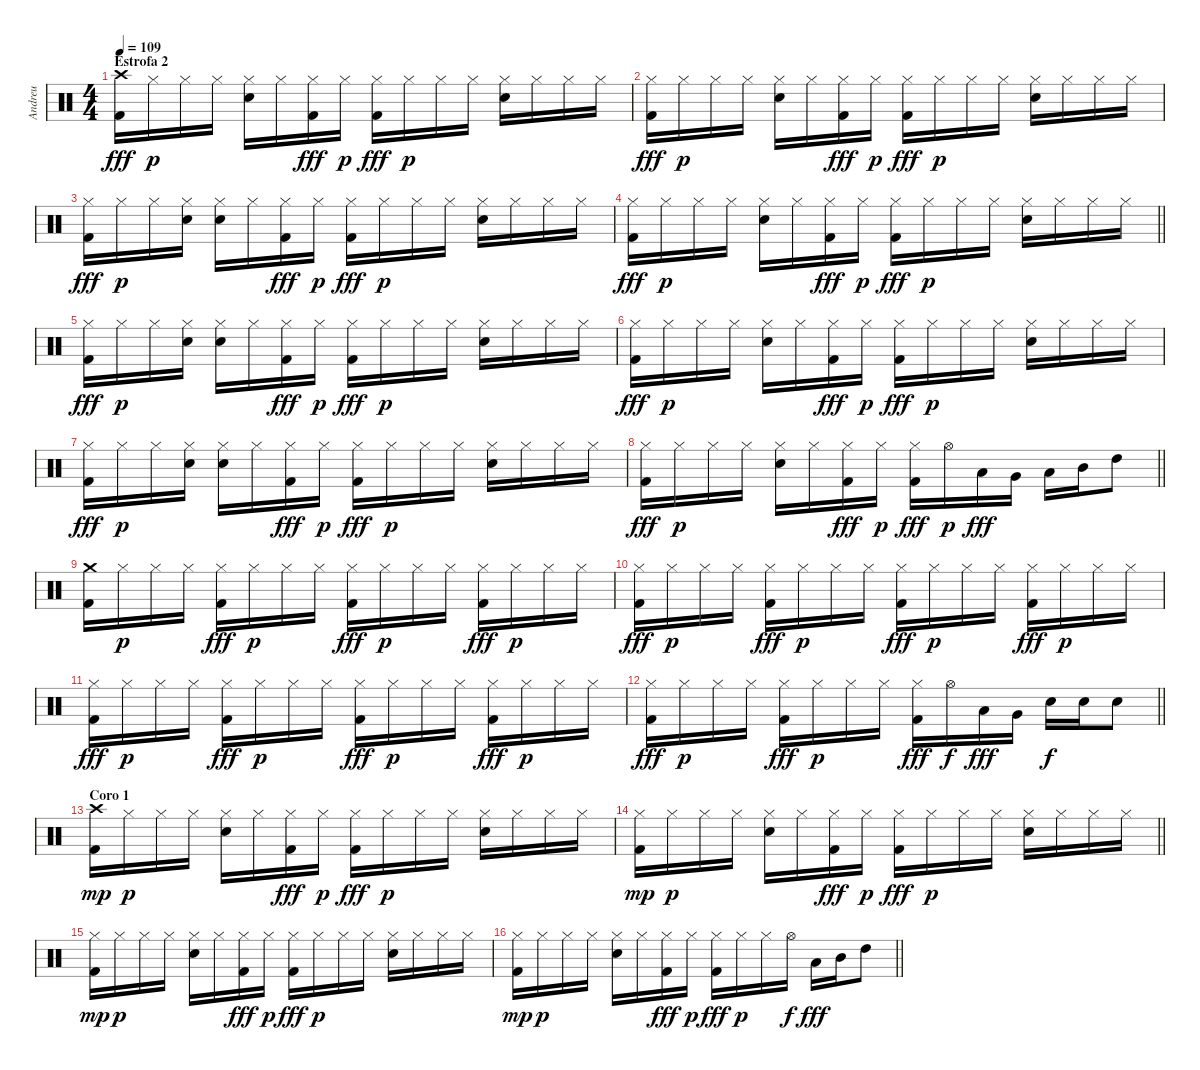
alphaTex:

\track ("Andreu" "Andreu") {instrument percussion}
\staff {score}
\articulation defaults
\ts (4 4)
\section ("" "Estrofa 2")
\tempo 109
\clef neutral
\ks c
("Crash high (hit)" "Kick (hit) 2").16{dy fff} "Hi-Hat (closed)".16{dy p} "Hi-Hat (closed)".16 "Hi-Hat (closed)".16 ("Hi-Hat (closed)" "Snare (hit) 2").16 "Hi-Hat (closed)".16 ("Hi-Hat (closed)" "Kick (hit) 2").16{dy fff} "Hi-Hat (closed)".16{dy p} ("Hi-Hat (closed)" "Kick (hit) 2").16{dy fff} "Hi-Hat (closed)".16{dy p} "Hi-Hat (closed)".16 "Hi-Hat (closed)".16 ("Hi-Hat (closed)" "Snare (hit) 2").16 "Hi-Hat (closed)".16 "Hi-Hat (closed)".16 "Hi-Hat (closed)".16 |
("Hi-Hat (closed)" "Kick (hit) 2").16{dy fff} "Hi-Hat (closed)".16{dy p} "Hi-Hat (closed)".16 "Hi-Hat (closed)".16 ("Hi-Hat (closed)" "Snare (hit) 2").16 "Hi-Hat (closed)".16 ("Hi-Hat (closed)" "Kick (hit) 2").16{dy fff} "Hi-Hat (closed)".16{dy p} ("Hi-Hat (closed)" "Kick (hit) 2").16{dy fff} "Hi-Hat (closed)".16{dy p} "Hi-Hat (closed)".16 "Hi-Hat (closed)".16 ("Hi-Hat (closed)" "Snare (hit) 2").16 "Hi-Hat (closed)".16 "Hi-Hat (closed)".16 "Hi-Hat (closed)".16 |
("Hi-Hat (closed)" "Kick (hit) 2").16{dy fff} "Hi-Hat (closed)".16{dy p} "Hi-Hat (closed)".16 ("Hi-Hat (closed)" "Snare (hit) 2").16 ("Hi-Hat (closed)" "Snare (hit) 2").16 "Hi-Hat (closed)".16 ("Hi-Hat (closed)" "Kick (hit) 2").16{dy fff} "Hi-Hat (closed)".16{dy p} ("Hi-Hat (closed)" "Kick (hit) 2").16{dy fff} "Hi-Hat (closed)".16{dy p} "Hi-Hat (closed)".16 "Hi-Hat (closed)".16 ("Hi-Hat (closed)" "Snare (hit) 2").16 "Hi-Hat (closed)".16 "Hi-Hat (closed)".16 "Hi-Hat (closed)".16 |
\barLineRight lightlight
("Hi-Hat (closed)" "Kick (hit) 2").16{dy fff} "Hi-Hat (closed)".16{dy p} "Hi-Hat (closed)".16 "Hi-Hat (closed)".16 ("Hi-Hat (closed)" "Snare (hit) 2").16 "Hi-Hat (closed)".16 ("Hi-Hat (closed)" "Kick (hit) 2").16{dy fff} "Hi-Hat (closed)".16{dy p} ("Hi-Hat (closed)" "Kick (hit) 2").16{dy fff} "Hi-Hat (closed)".16{dy p} "Hi-Hat (closed)".16 "Hi-Hat (closed)".16 ("Hi-Hat (closed)" "Snare (hit) 2").16 "Hi-Hat (closed)".16 "Hi-Hat (closed)".16 "Hi-Hat (closed)".16 |
("Hi-Hat (closed)" "Kick (hit) 2").16{dy fff} "Hi-Hat (closed)".16{dy p} "Hi-Hat (closed)".16 ("Hi-Hat (closed)" "Snare (hit) 2").16 ("Hi-Hat (closed)" "Snare (hit) 2").16 "Hi-Hat (closed)".16 ("Hi-Hat (closed)" "Kick (hit) 2").16{dy fff} "Hi-Hat (closed)".16{dy p} ("Hi-Hat (closed)" "Kick (hit) 2").16{dy fff} "Hi-Hat (closed)".16{dy p} "Hi-Hat (closed)".16 "Hi-Hat (closed)".16 ("Hi-Hat (closed)" "Snare (hit) 2").16 "Hi-Hat (closed)".16 "Hi-Hat (closed)".16 "Hi-Hat (closed)".16 |
("Hi-Hat (closed)" "Kick (hit) 2").16{dy fff} "Hi-Hat (closed)".16{dy p} "Hi-Hat (closed)".16 "Hi-Hat (closed)".16 ("Hi-Hat (closed)" "Snare (hit) 2").16 "Hi-Hat (closed)".16 ("Hi-Hat (closed)" "Kick (hit) 2").16{dy fff} "Hi-Hat (closed)".16{dy p} ("Hi-Hat (closed)" "Kick (hit) 2").16{dy fff} "Hi-Hat (closed)".16{dy p} "Hi-Hat (closed)".16 "Hi-Hat (closed)".16 ("Hi-Hat (closed)" "Snare (hit) 2").16 "Hi-Hat (closed)".16 "Hi-Hat (closed)".16 "Hi-Hat (closed)".16 |
("Hi-Hat (closed)" "Kick (hit) 2").16{dy fff} "Hi-Hat (closed)".16{dy p} "Hi-Hat (closed)".16 ("Hi-Hat (closed)" "Snare (hit) 2").16 ("Hi-Hat (closed)" "Snare (hit) 2").16 "Hi-Hat (closed)".16 ("Hi-Hat (closed)" "Kick (hit) 2").16{dy fff} "Hi-Hat (closed)".16{dy p} ("Hi-Hat (closed)" "Kick (hit) 2").16{dy fff} "Hi-Hat (closed)".16{dy p} "Hi-Hat (closed)".16 "Hi-Hat (closed)".16 ("Hi-Hat (closed)" "Snare (hit) 2").16 "Hi-Hat (closed)".16 "Hi-Hat (closed)".16 "Hi-Hat (closed)".16 |
\barLineRight lightlight
("Hi-Hat (closed)" "Kick (hit) 2").16{dy fff} "Hi-Hat (closed)".16{dy p} "Hi-Hat (closed)".16 "Hi-Hat (closed)".16 ("Hi-Hat (closed)" "Snare (hit) 2").16 "Hi-Hat (closed)".16 ("Hi-Hat (closed)" "Kick (hit) 2").16{dy fff} "Hi-Hat (closed)".16{dy p} ("Hi-Hat (closed)" "Kick (hit) 2").16{dy fff} "Hi-Hat (open)".16{dy p} "Low Floor Tom (hit)".16{dy fff} "Very Low Tom (hit)".16 "Low Tom (hit)".16 "Mid Tom (hit)".16 "High Tom (hit)".8 |
("Crash medium (hit)" "Kick (hit) 2").16 "Hi-Hat (closed)".16{dy p} "Hi-Hat (closed)".16 "Hi-Hat (closed)".16 ("Hi-Hat (closed)" "Kick (hit) 2").16{dy fff} "Hi-Hat (closed)".16{dy p} "Hi-Hat (closed)".16 "Hi-Hat (closed)".16 ("Hi-Hat (closed)" "Kick (hit) 2").16{dy fff} "Hi-Hat (closed)".16{dy p} "Hi-Hat (closed)".16 "Hi-Hat (closed)".16 ("Hi-Hat (closed)" "Kick (hit) 2").16{dy fff} "Hi-Hat (closed)".16{dy p} "Hi-Hat (closed)".16 "Hi-Hat (closed)".16 |
("Hi-Hat (closed)" "Kick (hit) 2").16{dy fff} "Hi-Hat (closed)".16{dy p} "Hi-Hat (closed)".16 "Hi-Hat (closed)".16 ("Hi-Hat (closed)" "Kick (hit) 2").16{dy fff} "Hi-Hat (closed)".16{dy p} "Hi-Hat (closed)".16 "Hi-Hat (closed)".16 ("Hi-Hat (closed)" "Kick (hit) 2").16{dy fff} "Hi-Hat (closed)".16{dy p} "Hi-Hat (closed)".16 "Hi-Hat (closed)".16 ("Hi-Hat (closed)" "Kick (hit) 2").16{dy fff} "Hi-Hat (closed)".16{dy p} "Hi-Hat (closed)".16 "Hi-Hat (closed)".16 |
("Hi-Hat (closed)" "Kick (hit) 2").16{dy fff} "Hi-Hat (closed)".16{dy p} "Hi-Hat (closed)".16 "Hi-Hat (closed)".16 ("Hi-Hat (closed)" "Kick (hit) 2").16{dy fff} "Hi-Hat (closed)".16{dy p} "Hi-Hat (closed)".16 "Hi-Hat (closed)".16 ("Hi-Hat (closed)" "Kick (hit) 2").16{dy fff} "Hi-Hat (closed)".16{dy p} "Hi-Hat (closed)".16 "Hi-Hat (closed)".16 ("Hi-Hat (closed)" "Kick (hit) 2").16{dy fff} "Hi-Hat (closed)".16{dy p} "Hi-Hat (closed)".16 "Hi-Hat (closed)".16 |
\barLineRight lightlight
("Hi-Hat (closed)" "Kick (hit) 2").16{dy fff} "Hi-Hat (closed)".16{dy p} "Hi-Hat (closed)".16 "Hi-Hat (closed)".16 ("Hi-Hat (closed)" "Kick (hit) 2").16{dy fff} "Hi-Hat (closed)".16{dy p} "Hi-Hat (closed)".16 "Hi-Hat (closed)".16 ("Hi-Hat (closed)" "Kick (hit) 2").16{dy fff} "Hi-Hat (open)".16{dy f} "Low Floor Tom (hit)".16{dy fff} "Very Low Tom (hit)".16 "Snare (hit) 2".16{dy f} "Snare (hit) 2".16 "Snare (hit) 2".8 |
\section ("" "Coro 1")
("Crash high (hit)" "Kick (hit) 2").16{dy mp} "Hi-Hat (closed)".16{dy p} "Hi-Hat (closed)".16 "Hi-Hat (closed)".16 ("Hi-Hat (closed)" "Snare (hit) 2").16 "Hi-Hat (closed)".16 ("Hi-Hat (closed)" "Kick (hit) 2").16{dy fff} "Hi-Hat (closed)".16{dy p} ("Hi-Hat (closed)" "Kick (hit) 2").16{dy fff} "Hi-Hat (closed)".16{dy p} "Hi-Hat (closed)".16 "Hi-Hat (closed)".16 ("Hi-Hat (closed)" "Snare (hit) 2").16 "Hi-Hat (closed)".16 "Hi-Hat (closed)".16 "Hi-Hat (closed)".16 |
\barLineRight lightlight
("Hi-Hat (closed)" "Kick (hit) 2").16{dy mp} "Hi-Hat (closed)".16{dy p} "Hi-Hat (closed)".16 "Hi-Hat (closed)".16 ("Hi-Hat (closed)" "Snare (hit) 2").16 "Hi-Hat (closed)".16 ("Hi-Hat (closed)" "Kick (hit) 2").16{dy fff} "Hi-Hat (closed)".16{dy p} ("Hi-Hat (closed)" "Kick (hit) 2").16{dy fff} "Hi-Hat (closed)".16{dy p} "Hi-Hat (closed)".16 "Hi-Hat (closed)".16 ("Hi-Hat (closed)" "Snare (hit) 2").16 "Hi-Hat (closed)".16 "Hi-Hat (closed)".16 "Hi-Hat (closed)".16 |
("Hi-Hat (closed)" "Kick (hit) 2").16{dy mp} "Hi-Hat (closed)".16{dy p} "Hi-Hat (closed)".16 "Hi-Hat (closed)".16 ("Hi-Hat (closed)" "Snare (hit) 2").16 "Hi-Hat (closed)".16 ("Hi-Hat (closed)" "Kick (hit) 2").16{dy fff} "Hi-Hat (closed)".16{dy p} ("Hi-Hat (closed)" "Kick (hit) 2").16{dy fff} "Hi-Hat (closed)".16{dy p} "Hi-Hat (closed)".16 "Hi-Hat (closed)".16 ("Hi-Hat (closed)" "Snare (hit) 2").16 "Hi-Hat (closed)".16 "Hi-Hat (closed)".16 "Hi-Hat (closed)".16 |
\barLineRight lightlight
("Hi-Hat (closed)" "Kick (hit) 2").16{dy mp} "Hi-Hat (closed)".16{dy p} "Hi-Hat (closed)".16 "Hi-Hat (closed)".16 ("Hi-Hat (closed)" "Snare (hit) 2").16 "Hi-Hat (closed)".16 ("Hi-Hat (closed)" "Kick (hit) 2").16{dy fff} "Hi-Hat (closed)".16{dy p} ("Hi-Hat (closed)" "Kick (hit) 2").16{dy fff} "Hi-Hat (closed)".16{dy p} "Hi-Hat (closed)".16 "Hi-Hat (open)".16{dy f} "Low Tom (hit)".16{dy fff} "Mid Tom (hit)".16 "High Tom (hit)".8
